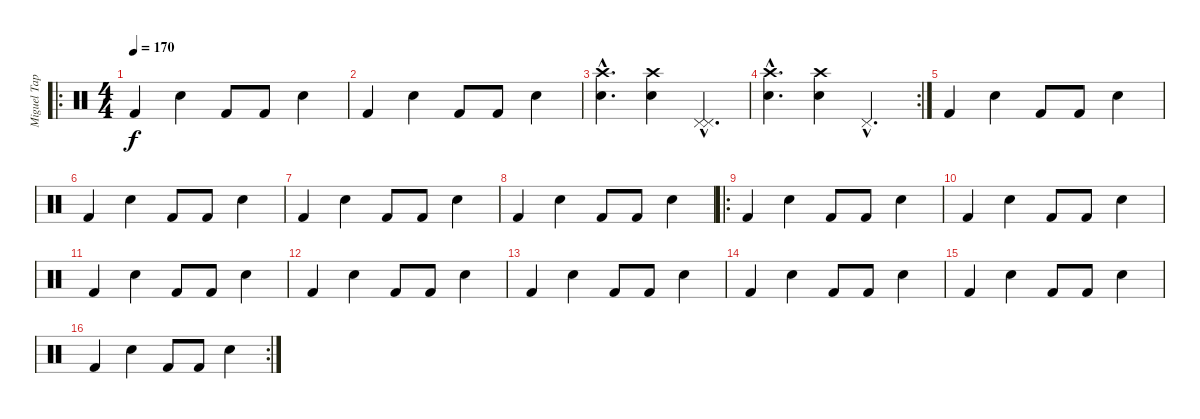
\track ("Miguel Tapia" "Miguel Tap") {instrument percussion}
\staff {score}
\articulation defaults
\ro
\ts (4 4)
\tempo 170
\clef neutral
\ks c "Kick (hit) 2".4{dy f} "Snare (hit) 2".4 "Kick (hit) 2".8 "Kick (hit) 2".8 "Snare (hit) 2".4
|
"Kick (hit) 2".4 "Snare (hit) 2".4 "Kick (hit) 2".8 "Kick (hit) 2".8 "Snare (hit) 2".4 |
("Snare (hit) 2"{hac} "Crash high (hit)"{hac}).4{d} ("Snare (hit) 2" "Crash high (hit)").4 ("Pedal Hi-Hat (hit)"{hac} "Pedal Hi-Hat (hit)"{hac}).4{d} |
\rc 2
("Snare (hit) 2"{hac} "Crash high (hit)"{hac}).4{d} ("Snare (hit) 2" "Crash high (hit)").4 "Pedal Hi-Hat (hit)"{hac}.4{d} |
"Kick (hit) 2".4 "Snare (hit) 2".4 "Kick (hit) 2".8 "Kick (hit) 2".8 "Snare (hit) 2".4 |
"Kick (hit) 2".4 "Snare (hit) 2".4 "Kick (hit) 2".8 "Kick (hit) 2".8 "Snare (hit) 2".4 |
"Kick (hit) 2".4 "Snare (hit) 2".4 "Kick (hit) 2".8 "Kick (hit) 2".8 "Snare (hit) 2".4 |
"Kick (hit) 2".4 "Snare (hit) 2".4 "Kick (hit) 2".8 "Kick (hit) 2".8 "Snare (hit) 2".4 |
\ro "Kick (hit) 2".4 "Snare (hit) 2".4 "Kick (hit) 2".8 "Kick (hit) 2".8 "Snare (hit) 2".4
|
"Kick (hit) 2".4 "Snare (hit) 2".4 "Kick (hit) 2".8 "Kick (hit) 2".8 "Snare (hit) 2".4 |
"Kick (hit) 2".4 "Snare (hit) 2".4 "Kick (hit) 2".8 "Kick (hit) 2".8 "Snare (hit) 2".4 |
"Kick (hit) 2".4 "Snare (hit) 2".4 "Kick (hit) 2".8 "Kick (hit) 2".8 "Snare (hit) 2".4 |
"Kick (hit) 2".4 "Snare (hit) 2".4 "Kick (hit) 2".8 "Kick (hit) 2".8 "Snare (hit) 2".4 |
"Kick (hit) 2".4 "Snare (hit) 2".4 "Kick (hit) 2".8 "Kick (hit) 2".8 "Snare (hit) 2".4 |
"Kick (hit) 2".4 "Snare (hit) 2".4 "Kick (hit) 2".8 "Kick (hit) 2".8 "Snare (hit) 2".4 |
\rc 2 "Kick (hit) 2".4 "Snare (hit) 2".4 "Kick (hit) 2".8 "Kick (hit) 2".8 "Snare (hit) 2".4
